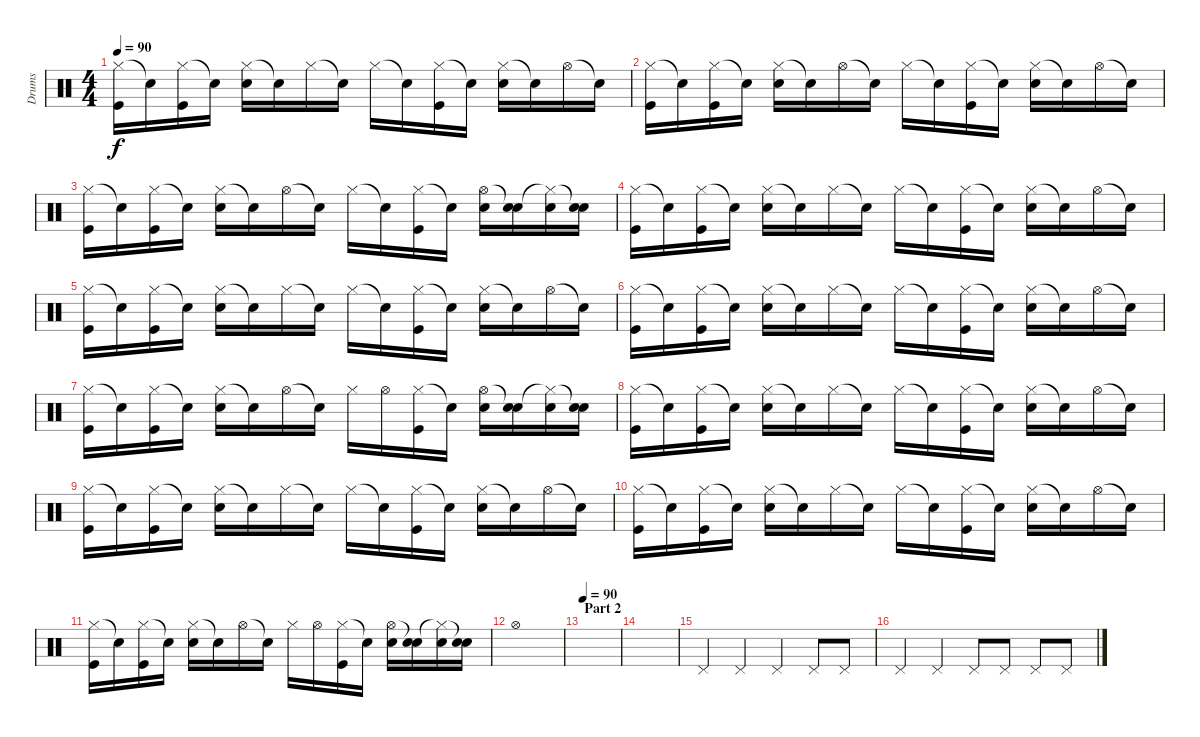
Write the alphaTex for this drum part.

\track ("Drums" "Drums") {instrument percussion}
\staff {score}
\articulation defaults
\ts (4 4)
\tempo 90
\clef neutral
\ks c
("Hi-Hat (closed)" "Kick (hit)").16{dy f} "Snare (hit)"{t}.16 ("Hi-Hat (closed)" "Kick (hit)").16 "Snare (hit)"{t}.16 ("Hi-Hat (closed)" "Electric Snare (hit)").16 "Snare (hit)"{t}.16 "Hi-Hat (closed)".16 "Snare (hit)"{t}.16 "Hi-Hat (closed)".16 "Snare (hit)"{t}.16 ("Hi-Hat (closed)" "Kick (hit)").16 "Snare (hit)"{t}.16 ("Hi-Hat (closed)" "Electric Snare (hit)").16 "Snare (hit)"{t}.16 "Hi-Hat (open)".16 "Snare (hit)"{t}.16 |
("Hi-Hat (closed)" "Kick (hit)").16 "Snare (hit)"{t}.16 ("Hi-Hat (closed)" "Kick (hit)").16 "Snare (hit)"{t}.16 ("Hi-Hat (closed)" "Electric Snare (hit)").16 "Snare (hit)"{t}.16 "Hi-Hat (open)".16 "Snare (hit)"{t}.16 "Hi-Hat (closed)".16 "Snare (hit)"{t}.16 ("Hi-Hat (closed)" "Kick (hit)").16 "Snare (hit)"{t}.16 ("Hi-Hat (closed)" "Electric Snare (hit)").16 "Snare (hit)"{t}.16 "Hi-Hat (open)".16 "Snare (hit)"{t}.16 |
("Hi-Hat (closed)" "Kick (hit)").16 "Snare (hit)"{t}.16 ("Hi-Hat (closed)" "Kick (hit)").16 "Snare (hit)"{t}.16 ("Hi-Hat (closed)" "Electric Snare (hit)").16 "Snare (hit)"{t}.16 "Hi-Hat (open)".16 "Snare (hit)"{t}.16 "Hi-Hat (closed)".16 "Snare (hit)"{t}.16 ("Hi-Hat (closed)" "Kick (hit)").16 "Snare (hit)"{t}.16 ("Hi-Hat (open)" "Electric Snare (hit)").16 ("Snare (hit)"{t} "Electric Snare (hit)").16 ("Hi-Hat (closed)"{t} "Electric Snare (hit)").16 ("Snare (hit)"{t} "Electric Snare (hit)").16 |
("Hi-Hat (closed)" "Kick (hit)").16 "Snare (hit)"{t}.16 ("Hi-Hat (closed)" "Kick (hit)").16 "Snare (hit)"{t}.16 ("Hi-Hat (closed)" "Electric Snare (hit)").16 "Snare (hit)"{t}.16 "Hi-Hat (closed)".16 "Snare (hit)"{t}.16 "Hi-Hat (closed)".16 "Snare (hit)"{t}.16 ("Hi-Hat (closed)" "Kick (hit)").16 "Snare (hit)"{t}.16 ("Hi-Hat (closed)" "Electric Snare (hit)").16 "Snare (hit)"{t}.16 "Hi-Hat (open)".16 "Snare (hit)"{t}.16 |
("Hi-Hat (closed)" "Kick (hit)").16 "Snare (hit)"{t}.16 ("Hi-Hat (closed)" "Kick (hit)").16 "Snare (hit)"{t}.16 ("Hi-Hat (closed)" "Electric Snare (hit)").16 "Snare (hit)"{t}.16 "Hi-Hat (closed)".16 "Snare (hit)"{t}.16 "Hi-Hat (closed)".16 "Snare (hit)"{t}.16 ("Hi-Hat (closed)" "Kick (hit)").16 "Snare (hit)"{t}.16 ("Hi-Hat (closed)" "Electric Snare (hit)").16 "Snare (hit)"{t}.16 "Hi-Hat (open)".16 "Snare (hit)"{t}.16 |
("Hi-Hat (closed)" "Kick (hit)").16 "Snare (hit)"{t}.16 ("Hi-Hat (closed)" "Kick (hit)").16 "Snare (hit)"{t}.16 ("Hi-Hat (closed)" "Electric Snare (hit)").16 "Snare (hit)"{t}.16 "Hi-Hat (closed)".16 "Snare (hit)"{t}.16 "Hi-Hat (closed)".16 "Snare (hit)"{t}.16 ("Hi-Hat (closed)" "Kick (hit)").16 "Snare (hit)"{t}.16 ("Hi-Hat (closed)" "Electric Snare (hit)").16 "Snare (hit)"{t}.16 "Hi-Hat (open)".16 "Snare (hit)"{t}.16 |
("Hi-Hat (closed)" "Kick (hit)").16 "Snare (hit)"{t}.16 ("Hi-Hat (closed)" "Kick (hit)").16 "Snare (hit)"{t}.16 ("Hi-Hat (closed)" "Electric Snare (hit)").16 "Snare (hit)"{t}.16 "Hi-Hat (open)".16 "Snare (hit)"{t}.16 "Hi-Hat (closed)".16 "Hi-Hat (open)".16 ("Hi-Hat (closed)" "Kick (hit)").16 "Snare (hit)"{t}.16 ("Hi-Hat (open)" "Electric Snare (hit)").16 ("Snare (hit)"{t} "Electric Snare (hit)").16 ("Hi-Hat (closed)"{t} "Electric Snare (hit)").16 ("Snare (hit)"{t} "Electric Snare (hit)").16 |
("Hi-Hat (closed)" "Kick (hit)").16 "Snare (hit)"{t}.16 ("Hi-Hat (closed)" "Kick (hit)").16 "Snare (hit)"{t}.16 ("Hi-Hat (closed)" "Electric Snare (hit)").16 "Snare (hit)"{t}.16 "Hi-Hat (closed)".16 "Snare (hit)"{t}.16 "Hi-Hat (closed)".16 "Snare (hit)"{t}.16 ("Hi-Hat (closed)" "Kick (hit)").16 "Snare (hit)"{t}.16 ("Hi-Hat (closed)" "Electric Snare (hit)").16 "Snare (hit)"{t}.16 "Hi-Hat (open)".16 "Snare (hit)"{t}.16 |
("Hi-Hat (closed)" "Kick (hit)").16 "Snare (hit)"{t}.16 ("Hi-Hat (closed)" "Kick (hit)").16 "Snare (hit)"{t}.16 ("Hi-Hat (closed)" "Electric Snare (hit)").16 "Snare (hit)"{t}.16 "Hi-Hat (closed)".16 "Snare (hit)"{t}.16 "Hi-Hat (closed)".16 "Snare (hit)"{t}.16 ("Hi-Hat (closed)" "Kick (hit)").16 "Snare (hit)"{t}.16 ("Hi-Hat (closed)" "Electric Snare (hit)").16 "Snare (hit)"{t}.16 "Hi-Hat (open)".16 "Snare (hit)"{t}.16 |
("Hi-Hat (closed)" "Kick (hit)").16 "Snare (hit)"{t}.16 ("Hi-Hat (closed)" "Kick (hit)").16 "Snare (hit)"{t}.16 ("Hi-Hat (closed)" "Electric Snare (hit)").16 "Snare (hit)"{t}.16 "Hi-Hat (closed)".16 "Snare (hit)"{t}.16 "Hi-Hat (closed)".16 "Snare (hit)"{t}.16 ("Hi-Hat (closed)" "Kick (hit)").16 "Snare (hit)"{t}.16 ("Hi-Hat (closed)" "Electric Snare (hit)").16 "Snare (hit)"{t}.16 "Hi-Hat (open)".16 "Snare (hit)"{t}.16 |
("Hi-Hat (closed)" "Kick (hit)").16 "Snare (hit)"{t}.16 ("Hi-Hat (closed)" "Kick (hit)").16 "Snare (hit)"{t}.16 ("Hi-Hat (closed)" "Electric Snare (hit)").16 "Snare (hit)"{t}.16 "Hi-Hat (open)".16 "Snare (hit)"{t}.16 "Hi-Hat (closed)".16 "Hi-Hat (open)".16 ("Hi-Hat (closed)" "Kick (hit)").16 "Snare (hit)"{t}.16 ("Hi-Hat (open)" "Electric Snare (hit)").16 ("Snare (hit)"{t} "Electric Snare (hit)").16 ("Hi-Hat (closed)"{t} "Electric Snare (hit)").16 ("Snare (hit)"{t} "Electric Snare (hit)").16 |
"Hi-Hat (open)".1 |
\section ("" "Part 2")
\tempo 90
|
|
"Pedal Hi-Hat (hit)".4 "Pedal Hi-Hat (hit)".4 "Pedal Hi-Hat (hit)".4 "Pedal Hi-Hat (hit)".8 "Pedal Hi-Hat (hit)".8 |
"Pedal Hi-Hat (hit)".4 "Pedal Hi-Hat (hit)".4 "Pedal Hi-Hat (hit)".8 "Pedal Hi-Hat (hit)".8 "Pedal Hi-Hat (hit)".8 "Pedal Hi-Hat (hit)".8
